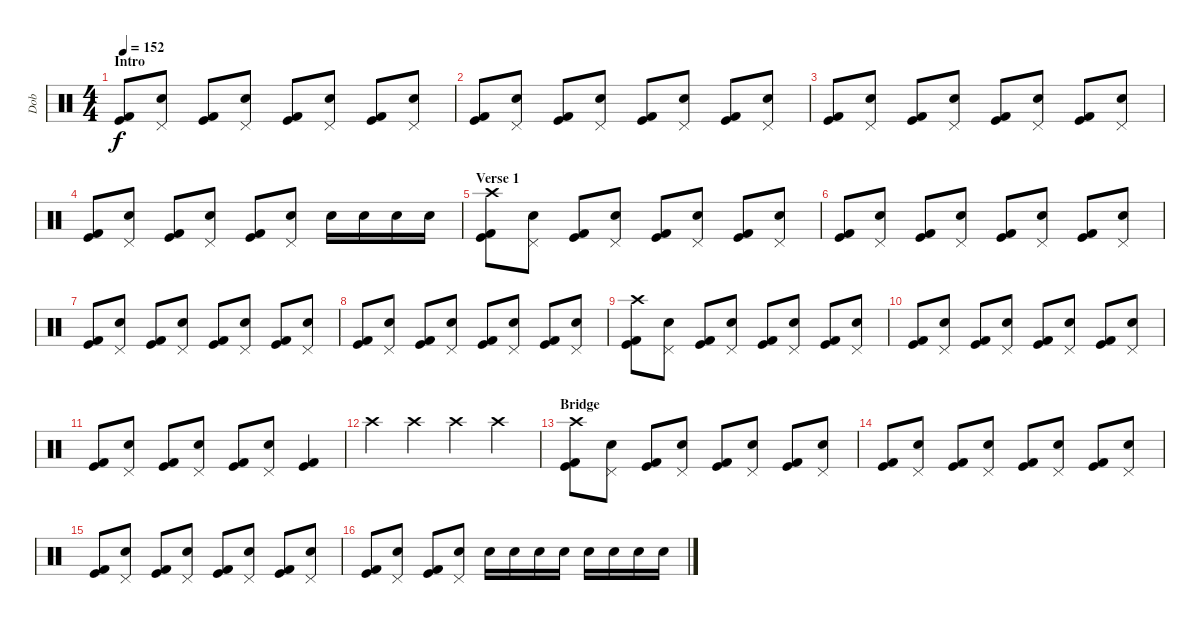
\track ("Dob" "Dob") {instrument percussion}
\staff {score}
\articulation defaults
\ts (4 4)
\section ("" "Intro")
\tempo 152
\clef neutral
\ks c
("Kick (hit)" "Kick (hit) 2").8{dy f} ("Pedal Hi-Hat (hit)" "Electric Snare (hit)").8 ("Kick (hit)" "Kick (hit) 2").8 ("Pedal Hi-Hat (hit)" "Electric Snare (hit)").8 ("Kick (hit)" "Kick (hit) 2").8 ("Pedal Hi-Hat (hit)" "Electric Snare (hit)").8 ("Kick (hit)" "Kick (hit) 2").8 ("Pedal Hi-Hat (hit)" "Electric Snare (hit)").8 |
("Kick (hit)" "Kick (hit) 2").8 ("Pedal Hi-Hat (hit)" "Electric Snare (hit)").8 ("Kick (hit)" "Kick (hit) 2").8 ("Pedal Hi-Hat (hit)" "Electric Snare (hit)").8 ("Kick (hit)" "Kick (hit) 2").8 ("Pedal Hi-Hat (hit)" "Electric Snare (hit)").8 ("Kick (hit)" "Kick (hit) 2").8 ("Pedal Hi-Hat (hit)" "Electric Snare (hit)").8 |
("Kick (hit)" "Kick (hit) 2").8 ("Pedal Hi-Hat (hit)" "Electric Snare (hit)").8 ("Kick (hit)" "Kick (hit) 2").8 ("Pedal Hi-Hat (hit)" "Electric Snare (hit)").8 ("Kick (hit)" "Kick (hit) 2").8 ("Pedal Hi-Hat (hit)" "Electric Snare (hit)").8 ("Kick (hit)" "Kick (hit) 2").8 ("Pedal Hi-Hat (hit)" "Electric Snare (hit)").8 |
("Kick (hit)" "Kick (hit) 2").8 ("Pedal Hi-Hat (hit)" "Electric Snare (hit)").8 ("Kick (hit)" "Kick (hit) 2").8 ("Pedal Hi-Hat (hit)" "Electric Snare (hit)").8 ("Kick (hit)" "Kick (hit) 2").8 ("Pedal Hi-Hat (hit)" "Electric Snare (hit)").8 "Electric Snare (hit)".16 "Electric Snare (hit)".16 "Electric Snare (hit)".16 "Electric Snare (hit)".16 |
\section ("" "Verse 1")
("Crash high (hit)" "Kick (hit)" "Kick (hit) 2").8 ("Pedal Hi-Hat (hit)" "Electric Snare (hit)").8 ("Kick (hit)" "Kick (hit) 2").8 ("Pedal Hi-Hat (hit)" "Electric Snare (hit)").8 ("Kick (hit)" "Kick (hit) 2").8 ("Pedal Hi-Hat (hit)" "Electric Snare (hit)").8 ("Kick (hit)" "Kick (hit) 2").8 ("Pedal Hi-Hat (hit)" "Electric Snare (hit)").8 |
("Kick (hit)" "Kick (hit) 2").8 ("Pedal Hi-Hat (hit)" "Electric Snare (hit)").8 ("Kick (hit)" "Kick (hit) 2").8 ("Pedal Hi-Hat (hit)" "Electric Snare (hit)").8 ("Kick (hit)" "Kick (hit) 2").8 ("Pedal Hi-Hat (hit)" "Electric Snare (hit)").8 ("Kick (hit)" "Kick (hit) 2").8 ("Pedal Hi-Hat (hit)" "Electric Snare (hit)").8 |
("Kick (hit)" "Kick (hit) 2").8 ("Pedal Hi-Hat (hit)" "Electric Snare (hit)").8 ("Kick (hit)" "Kick (hit) 2").8 ("Pedal Hi-Hat (hit)" "Electric Snare (hit)").8 ("Kick (hit)" "Kick (hit) 2").8 ("Pedal Hi-Hat (hit)" "Electric Snare (hit)").8 ("Kick (hit)" "Kick (hit) 2").8 ("Pedal Hi-Hat (hit)" "Electric Snare (hit)").8 |
("Kick (hit)" "Kick (hit) 2").8 ("Pedal Hi-Hat (hit)" "Electric Snare (hit)").8 ("Kick (hit)" "Kick (hit) 2").8 ("Pedal Hi-Hat (hit)" "Electric Snare (hit)").8 ("Kick (hit)" "Kick (hit) 2").8 ("Pedal Hi-Hat (hit)" "Electric Snare (hit)").8 ("Kick (hit)" "Kick (hit) 2").8 ("Pedal Hi-Hat (hit)" "Electric Snare (hit)").8 |
("Crash high (hit)" "Kick (hit)" "Kick (hit) 2").8 ("Pedal Hi-Hat (hit)" "Electric Snare (hit)").8 ("Kick (hit)" "Kick (hit) 2").8 ("Pedal Hi-Hat (hit)" "Electric Snare (hit)").8 ("Kick (hit)" "Kick (hit) 2").8 ("Pedal Hi-Hat (hit)" "Electric Snare (hit)").8 ("Kick (hit)" "Kick (hit) 2").8 ("Pedal Hi-Hat (hit)" "Electric Snare (hit)").8 |
("Kick (hit)" "Kick (hit) 2").8 ("Pedal Hi-Hat (hit)" "Electric Snare (hit)").8 ("Kick (hit)" "Kick (hit) 2").8 ("Pedal Hi-Hat (hit)" "Electric Snare (hit)").8 ("Kick (hit)" "Kick (hit) 2").8 ("Pedal Hi-Hat (hit)" "Electric Snare (hit)").8 ("Kick (hit)" "Kick (hit) 2").8 ("Pedal Hi-Hat (hit)" "Electric Snare (hit)").8 |
("Kick (hit)" "Kick (hit) 2").8 ("Pedal Hi-Hat (hit)" "Electric Snare (hit)").8 ("Kick (hit)" "Kick (hit) 2").8 ("Pedal Hi-Hat (hit)" "Electric Snare (hit)").8 ("Kick (hit)" "Kick (hit) 2").8 ("Pedal Hi-Hat (hit)" "Electric Snare (hit)").8 ("Kick (hit)" "Kick (hit) 2").4 |
"Crash high (hit)".4 "Crash high (hit)".4 "Crash high (hit)".4 "Crash high (hit)".4 |
\section ("" "Bridge")
("Crash high (hit)" "Kick (hit)" "Kick (hit) 2").8 ("Pedal Hi-Hat (hit)" "Electric Snare (hit)").8 ("Kick (hit)" "Kick (hit) 2").8 ("Pedal Hi-Hat (hit)" "Electric Snare (hit)").8 ("Kick (hit)" "Kick (hit) 2").8 ("Pedal Hi-Hat (hit)" "Electric Snare (hit)").8 ("Kick (hit)" "Kick (hit) 2").8 ("Pedal Hi-Hat (hit)" "Electric Snare (hit)").8 |
("Kick (hit)" "Kick (hit) 2").8 ("Pedal Hi-Hat (hit)" "Electric Snare (hit)").8 ("Kick (hit)" "Kick (hit) 2").8 ("Pedal Hi-Hat (hit)" "Electric Snare (hit)").8 ("Kick (hit)" "Kick (hit) 2").8 ("Pedal Hi-Hat (hit)" "Electric Snare (hit)").8 ("Kick (hit)" "Kick (hit) 2").8 ("Pedal Hi-Hat (hit)" "Electric Snare (hit)").8 |
("Kick (hit)" "Kick (hit) 2").8 ("Pedal Hi-Hat (hit)" "Electric Snare (hit)").8 ("Kick (hit)" "Kick (hit) 2").8 ("Pedal Hi-Hat (hit)" "Electric Snare (hit)").8 ("Kick (hit)" "Kick (hit) 2").8 ("Pedal Hi-Hat (hit)" "Electric Snare (hit)").8 ("Kick (hit)" "Kick (hit) 2").8 ("Pedal Hi-Hat (hit)" "Electric Snare (hit)").8 |
("Kick (hit)" "Kick (hit) 2").8 ("Pedal Hi-Hat (hit)" "Electric Snare (hit)").8 ("Kick (hit)" "Kick (hit) 2").8 ("Pedal Hi-Hat (hit)" "Electric Snare (hit)").8 "Electric Snare (hit)".16 "Electric Snare (hit)".16 "Electric Snare (hit)".16 "Electric Snare (hit)".16 "Electric Snare (hit)".16 "Electric Snare (hit)".16 "Electric Snare (hit)".16 "Electric Snare (hit)".16
